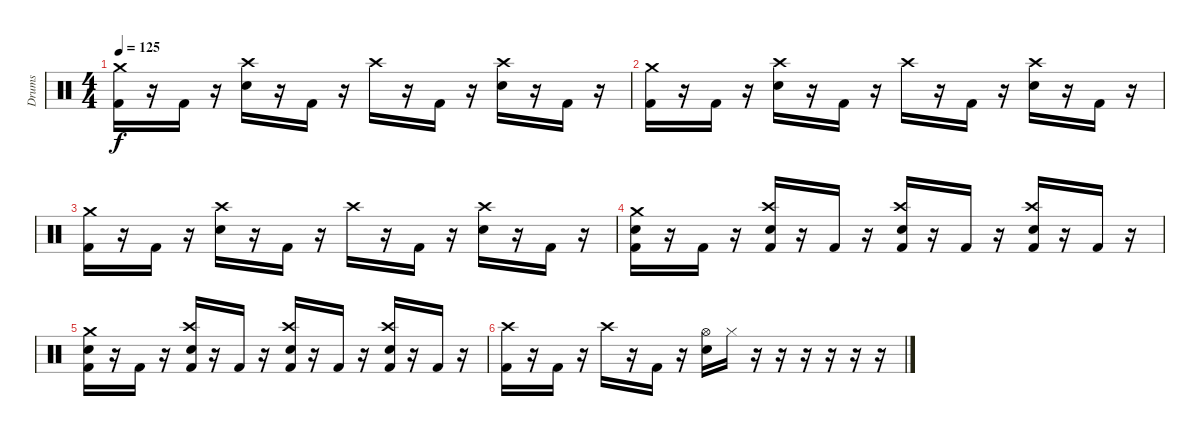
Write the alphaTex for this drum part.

\track ("Drums" "Drums") {instrument percussion}
\staff {score}
\articulation defaults
\ts (4 4)
\tempo 125
\clef neutral
\ks c
("Crash medium (hit)" "Kick (hit) 2").16{dy f} r.16 "Kick (hit) 2".16 r.16 ("Crash high (hit)" "Snare (hit) 2").16 r.16 "Kick (hit) 2".16 r.16 "Crash high (hit)".16 r.16 "Kick (hit) 2".16 r.16 ("Crash high (hit)" "Snare (hit) 2").16 r.16 "Kick (hit) 2".16 r.16 |
("Crash medium (hit)" "Kick (hit) 2").16 r.16 "Kick (hit) 2".16 r.16 ("Crash high (hit)" "Snare (hit) 2").16 r.16 "Kick (hit) 2".16 r.16 "Crash high (hit)".16 r.16 "Kick (hit) 2".16 r.16 ("Crash high (hit)" "Snare (hit) 2").16 r.16 "Kick (hit) 2".16 r.16 |
("Crash medium (hit)" "Kick (hit) 2").16 r.16 "Kick (hit) 2".16 r.16 ("Crash high (hit)" "Snare (hit) 2").16 r.16 "Kick (hit) 2".16 r.16 "Crash high (hit)".16 r.16 "Kick (hit) 2".16 r.16 ("Crash high (hit)" "Snare (hit) 2").16 r.16 "Kick (hit) 2".16 r.16 |
("Crash medium (hit)" "Snare (hit) 2" "Kick (hit) 2").16 r.16 "Kick (hit) 2".16 r.16 ("Crash high (hit)" "Snare (hit) 2" "Kick (hit) 2").16 r.16 "Kick (hit) 2".16 r.16 ("Crash high (hit)" "Snare (hit) 2" "Kick (hit) 2").16 r.16 "Kick (hit) 2".16 r.16 ("Crash high (hit)" "Snare (hit) 2" "Kick (hit) 2").16 r.16 "Kick (hit) 2".16 r.16 |
("Crash medium (hit)" "Snare (hit) 2" "Kick (hit) 2").16 r.16 "Kick (hit) 2".16 r.16 ("Crash high (hit)" "Snare (hit) 2" "Kick (hit) 2").16 r.16 "Kick (hit) 2".16 r.16 ("Crash high (hit)" "Snare (hit) 2" "Kick (hit) 2").16 r.16 "Kick (hit) 2".16 r.16 ("Crash high (hit)" "Snare (hit) 2" "Kick (hit) 2").16 r.16 "Kick (hit) 2".16 r.16 |
("Crash high (hit)" "Kick (hit) 2").16 r.16 "Kick (hit) 2".16 r.16 "Crash high (hit)".16 r.16 "Kick (hit) 2".16 r.16 ("Hi-Hat (open)" "Snare (hit) 2").16 "Hi-Hat (closed)".16 r.16 r.16 r.16 r.16 r.16 r.16
